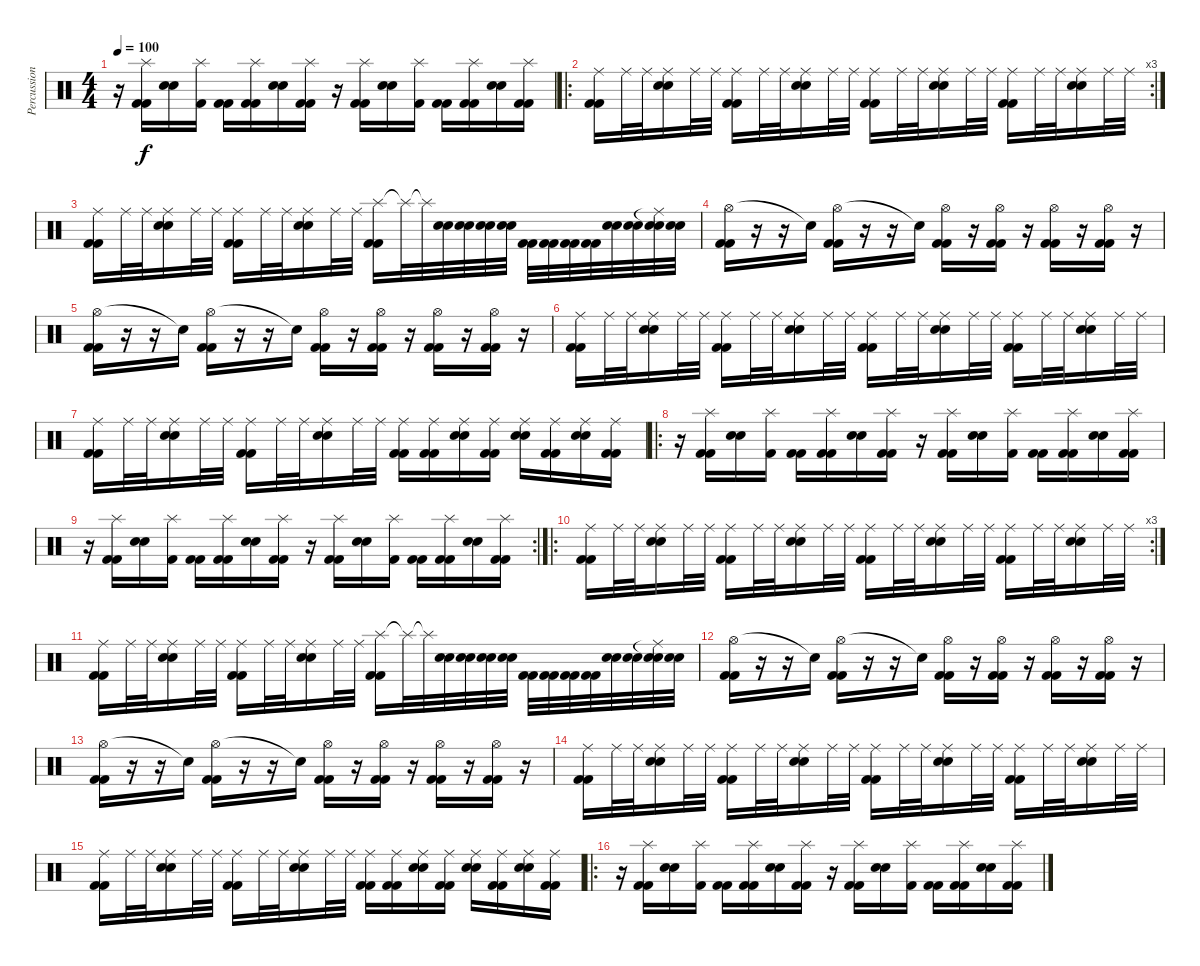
\track ("Percussion Dolmayan" "Percussion") {instrument percussion}
\staff {score}
\articulation defaults
\ts (4 4)
\tempo 100
\clef neutral
\ks c
r.16{dy f} ("Splash (hit)" "Kick (hit) 2" "Kick (hit) 2").16 ("Electric Snare (hit)" "Electric Snare (hit)").16 ("Splash (hit)" "Kick (hit) 2").16 ("Kick (hit) 2" "Kick (hit) 2").16 ("Splash (hit)" "Kick (hit) 2" "Kick (hit) 2").16 ("Electric Snare (hit)" "Electric Snare (hit)").16 ("Splash (hit)" "Kick (hit) 2" "Kick (hit) 2").16 r.16 ("Splash (hit)" "Kick (hit) 2" "Kick (hit) 2").16 ("Electric Snare (hit)" "Electric Snare (hit)").16 ("Splash (hit)" "Kick (hit) 2").16 ("Kick (hit) 2" "Kick (hit) 2").16 ("Splash (hit)" "Kick (hit) 2" "Kick (hit) 2").16 ("Electric Snare (hit)" "Electric Snare (hit)").16 ("Splash (hit)" "Kick (hit) 2" "Kick (hit) 2").16 |
\ro
\rc 3
("Ride (middle)" "Kick (hit) 2" "Kick (hit) 2").16 "Ride (middle)".32 "Ride (middle)".32 ("Ride (middle)" "Electric Snare (hit)" "Electric Snare (hit)").16 "Ride (middle)".32 "Ride (middle)".32 ("Ride (middle)" "Kick (hit) 2" "Kick (hit) 2").16 "Ride (middle)".32 "Ride (middle)".32 ("Ride (middle)" "Electric Snare (hit)" "Electric Snare (hit)").16 "Ride (middle)".32 "Ride (middle)".32 ("Ride (middle)" "Kick (hit) 2" "Kick (hit) 2").16 "Ride (middle)".32 "Ride (middle)".32 ("Ride (middle)" "Electric Snare (hit)" "Electric Snare (hit)").16 "Ride (middle)".32 "Ride (middle)".32 ("Ride (middle)" "Kick (hit) 2" "Kick (hit) 2").16 "Ride (middle)".32 "Ride (middle)".32 ("Ride (middle)" "Electric Snare (hit)" "Electric Snare (hit)").16 "Ride (middle)".32 "Ride (middle)".32 |
("Ride (middle)" "Kick (hit) 2" "Kick (hit) 2").16 "Ride (middle)".32 "Ride (middle)".32 ("Ride (middle)" "Electric Snare (hit)" "Electric Snare (hit)").16 "Ride (middle)".32 "Ride (middle)".32 ("Ride (middle)" "Kick (hit) 2" "Kick (hit) 2").16 "Ride (middle)".32 "Ride (middle)".32 ("Ride (middle)" "Electric Snare (hit)" "Electric Snare (hit)").16 "Ride (middle)".32 "Ride (middle)".32 ("Splash (hit)" "Kick (hit) 2" "Kick (hit) 2").16 "Splash (hit)"{t}.32 "Splash (hit)"{t}.32 ("Electric Snare (hit)" "Electric Snare (hit)").32 ("Electric Snare (hit)" "Electric Snare (hit)").32 ("Electric Snare (hit)" "Electric Snare (hit)").32 ("Electric Snare (hit)" "Electric Snare (hit)").32 ("Kick (hit) 2" "Kick (hit) 2").32 ("Kick (hit) 2" "Kick (hit) 2").32 ("Kick (hit) 2" "Kick (hit) 2").32 ("Kick (hit) 2" "Kick (hit) 2").32 ("Electric Snare (hit)" "Electric Snare (hit)").32 ("Electric Snare (hit)" "Electric Snare (hit)").32 ("Ride (middle)"{t} "Electric Snare (hit)" "Electric Snare (hit)").32 ("Electric Snare (hit)" "Electric Snare (hit)").32 |
("Hi-Hat (open)" "Kick (hit) 2" "Kick (hit) 2").16 r.16 r.16 "Snare (hit)"{t}.16 ("Hi-Hat (open)" "Kick (hit) 2" "Kick (hit) 2").16 r.16 r.16 "Snare (hit)"{t}.16 ("Hi-Hat (open)" "Kick (hit) 2" "Kick (hit) 2").16 r.16 ("Hi-Hat (open)" "Kick (hit) 2" "Kick (hit) 2").16 r.16 ("Hi-Hat (open)" "Kick (hit) 2" "Kick (hit) 2").16 r.16 ("Hi-Hat (open)" "Kick (hit) 2" "Kick (hit) 2").16 r.16 |
("Hi-Hat (open)" "Kick (hit) 2" "Kick (hit) 2").16 r.16 r.16 "Snare (hit)"{t}.16 ("Hi-Hat (open)" "Kick (hit) 2" "Kick (hit) 2").16 r.16 r.16 "Snare (hit)"{t}.16 ("Hi-Hat (open)" "Kick (hit) 2" "Kick (hit) 2").16 r.16 ("Hi-Hat (open)" "Kick (hit) 2" "Kick (hit) 2").16 r.16 ("Hi-Hat (open)" "Kick (hit) 2" "Kick (hit) 2").16 r.16 ("Hi-Hat (open)" "Kick (hit) 2" "Kick (hit) 2").16 r.16 |
("Ride (middle)" "Kick (hit) 2" "Kick (hit) 2").16 "Ride (middle)".32 "Ride (middle)".32 ("Ride (middle)" "Electric Snare (hit)" "Electric Snare (hit)").16 "Ride (middle)".32 "Ride (middle)".32 ("Ride (middle)" "Kick (hit) 2" "Kick (hit) 2").16 "Ride (middle)".32 "Ride (middle)".32 ("Ride (middle)" "Electric Snare (hit)" "Electric Snare (hit)").16 "Ride (middle)".32 "Ride (middle)".32 ("Ride (middle)" "Kick (hit) 2" "Kick (hit) 2").16 "Ride (middle)".32 "Ride (middle)".32 ("Ride (middle)" "Electric Snare (hit)" "Electric Snare (hit)").16 "Ride (middle)".32 "Ride (middle)".32 ("Ride (middle)" "Kick (hit) 2" "Kick (hit) 2").16 "Ride (middle)".32 "Ride (middle)".32 ("Ride (middle)" "Electric Snare (hit)" "Electric Snare (hit)").16 "Ride (middle)".32 "Ride (middle)".32 |
("Ride (middle)" "Kick (hit) 2" "Kick (hit) 2").16 "Ride (middle)".32 "Ride (middle)".32 ("Ride (middle)" "Electric Snare (hit)" "Electric Snare (hit)").16 "Ride (middle)".32 "Ride (middle)".32 ("Ride (middle)" "Kick (hit) 2" "Kick (hit) 2").16 "Ride (middle)".32 "Ride (middle)".32 ("Ride (middle)" "Electric Snare (hit)" "Electric Snare (hit)").16 "Ride (middle)".32 "Ride (middle)".32 ("Ride (middle)" "Kick (hit) 2" "Kick (hit) 2").16 ("Ride (middle)" "Kick (hit) 2" "Kick (hit) 2").16 ("Ride (middle)" "Electric Snare (hit)" "Electric Snare (hit)").16 ("Ride (middle)" "Kick (hit) 2" "Kick (hit) 2").16 ("Ride (middle)" "Electric Snare (hit)" "Electric Snare (hit)").16 ("Ride (middle)" "Kick (hit) 2" "Kick (hit) 2").16 ("Ride (middle)" "Electric Snare (hit)" "Electric Snare (hit)").16 ("Ride (middle)" "Kick (hit) 2" "Kick (hit) 2").16 |
\ro
r.16 ("Splash (hit)" "Kick (hit) 2" "Kick (hit) 2").16 ("Electric Snare (hit)" "Electric Snare (hit)").16 ("Splash (hit)" "Kick (hit) 2").16 ("Kick (hit) 2" "Kick (hit) 2").16 ("Splash (hit)" "Kick (hit) 2" "Kick (hit) 2").16 ("Electric Snare (hit)" "Electric Snare (hit)").16 ("Splash (hit)" "Kick (hit) 2" "Kick (hit) 2").16 r.16 ("Splash (hit)" "Kick (hit) 2" "Kick (hit) 2").16 ("Electric Snare (hit)" "Electric Snare (hit)").16 ("Splash (hit)" "Kick (hit) 2").16 ("Kick (hit) 2" "Kick (hit) 2").16 ("Splash (hit)" "Kick (hit) 2" "Kick (hit) 2").16 ("Electric Snare (hit)" "Electric Snare (hit)").16 ("Splash (hit)" "Kick (hit) 2" "Kick (hit) 2").16 |
\rc 2
r.16 ("Splash (hit)" "Kick (hit) 2" "Kick (hit) 2").16 ("Electric Snare (hit)" "Electric Snare (hit)").16 ("Splash (hit)" "Kick (hit) 2").16 ("Kick (hit) 2" "Kick (hit) 2").16 ("Splash (hit)" "Kick (hit) 2" "Kick (hit) 2").16 ("Electric Snare (hit)" "Electric Snare (hit)").16 ("Splash (hit)" "Kick (hit) 2" "Kick (hit) 2").16 r.16 ("Splash (hit)" "Kick (hit) 2" "Kick (hit) 2").16 ("Electric Snare (hit)" "Electric Snare (hit)").16 ("Splash (hit)" "Kick (hit) 2").16 ("Kick (hit) 2" "Kick (hit) 2").16 ("Splash (hit)" "Kick (hit) 2" "Kick (hit) 2").16 ("Electric Snare (hit)" "Electric Snare (hit)").16 ("Splash (hit)" "Kick (hit) 2" "Kick (hit) 2").16 |
\ro
\rc 3
("Ride (middle)" "Kick (hit) 2" "Kick (hit) 2").16 "Ride (middle)".32 "Ride (middle)".32 ("Ride (middle)" "Electric Snare (hit)" "Electric Snare (hit)").16 "Ride (middle)".32 "Ride (middle)".32 ("Ride (middle)" "Kick (hit) 2" "Kick (hit) 2").16 "Ride (middle)".32 "Ride (middle)".32 ("Ride (middle)" "Electric Snare (hit)" "Electric Snare (hit)").16 "Ride (middle)".32 "Ride (middle)".32 ("Ride (middle)" "Kick (hit) 2" "Kick (hit) 2").16 "Ride (middle)".32 "Ride (middle)".32 ("Ride (middle)" "Electric Snare (hit)" "Electric Snare (hit)").16 "Ride (middle)".32 "Ride (middle)".32 ("Ride (middle)" "Kick (hit) 2" "Kick (hit) 2").16 "Ride (middle)".32 "Ride (middle)".32 ("Ride (middle)" "Electric Snare (hit)" "Electric Snare (hit)").16 "Ride (middle)".32 "Ride (middle)".32 |
("Ride (middle)" "Kick (hit) 2" "Kick (hit) 2").16 "Ride (middle)".32 "Ride (middle)".32 ("Ride (middle)" "Electric Snare (hit)" "Electric Snare (hit)").16 "Ride (middle)".32 "Ride (middle)".32 ("Ride (middle)" "Kick (hit) 2" "Kick (hit) 2").16 "Ride (middle)".32 "Ride (middle)".32 ("Ride (middle)" "Electric Snare (hit)" "Electric Snare (hit)").16 "Ride (middle)".32 "Ride (middle)".32 ("Splash (hit)" "Kick (hit) 2" "Kick (hit) 2").16 "Splash (hit)"{t}.32 "Splash (hit)"{t}.32 ("Electric Snare (hit)" "Electric Snare (hit)").32 ("Electric Snare (hit)" "Electric Snare (hit)").32 ("Electric Snare (hit)" "Electric Snare (hit)").32 ("Electric Snare (hit)" "Electric Snare (hit)").32 ("Kick (hit) 2" "Kick (hit) 2").32 ("Kick (hit) 2" "Kick (hit) 2").32 ("Kick (hit) 2" "Kick (hit) 2").32 ("Kick (hit) 2" "Kick (hit) 2").32 ("Electric Snare (hit)" "Electric Snare (hit)").32 ("Electric Snare (hit)" "Electric Snare (hit)").32 ("Ride (middle)"{t} "Electric Snare (hit)" "Electric Snare (hit)").32 ("Electric Snare (hit)" "Electric Snare (hit)").32 |
("Hi-Hat (open)" "Kick (hit) 2" "Kick (hit) 2").16 r.16 r.16 "Snare (hit)"{t}.16 ("Hi-Hat (open)" "Kick (hit) 2" "Kick (hit) 2").16 r.16 r.16 "Snare (hit)"{t}.16 ("Hi-Hat (open)" "Kick (hit) 2" "Kick (hit) 2").16 r.16 ("Hi-Hat (open)" "Kick (hit) 2" "Kick (hit) 2").16 r.16 ("Hi-Hat (open)" "Kick (hit) 2" "Kick (hit) 2").16 r.16 ("Hi-Hat (open)" "Kick (hit) 2" "Kick (hit) 2").16 r.16 |
("Hi-Hat (open)" "Kick (hit) 2" "Kick (hit) 2").16 r.16 r.16 "Snare (hit)"{t}.16 ("Hi-Hat (open)" "Kick (hit) 2" "Kick (hit) 2").16 r.16 r.16 "Snare (hit)"{t}.16 ("Hi-Hat (open)" "Kick (hit) 2" "Kick (hit) 2").16 r.16 ("Hi-Hat (open)" "Kick (hit) 2" "Kick (hit) 2").16 r.16 ("Hi-Hat (open)" "Kick (hit) 2" "Kick (hit) 2").16 r.16 ("Hi-Hat (open)" "Kick (hit) 2" "Kick (hit) 2").16 r.16 |
("Ride (middle)" "Kick (hit) 2" "Kick (hit) 2").16 "Ride (middle)".32 "Ride (middle)".32 ("Ride (middle)" "Electric Snare (hit)" "Electric Snare (hit)").16 "Ride (middle)".32 "Ride (middle)".32 ("Ride (middle)" "Kick (hit) 2" "Kick (hit) 2").16 "Ride (middle)".32 "Ride (middle)".32 ("Ride (middle)" "Electric Snare (hit)" "Electric Snare (hit)").16 "Ride (middle)".32 "Ride (middle)".32 ("Ride (middle)" "Kick (hit) 2" "Kick (hit) 2").16 "Ride (middle)".32 "Ride (middle)".32 ("Ride (middle)" "Electric Snare (hit)" "Electric Snare (hit)").16 "Ride (middle)".32 "Ride (middle)".32 ("Ride (middle)" "Kick (hit) 2" "Kick (hit) 2").16 "Ride (middle)".32 "Ride (middle)".32 ("Ride (middle)" "Electric Snare (hit)" "Electric Snare (hit)").16 "Ride (middle)".32 "Ride (middle)".32 |
("Ride (middle)" "Kick (hit) 2" "Kick (hit) 2").16 "Ride (middle)".32 "Ride (middle)".32 ("Ride (middle)" "Electric Snare (hit)" "Electric Snare (hit)").16 "Ride (middle)".32 "Ride (middle)".32 ("Ride (middle)" "Kick (hit) 2" "Kick (hit) 2").16 "Ride (middle)".32 "Ride (middle)".32 ("Ride (middle)" "Electric Snare (hit)" "Electric Snare (hit)").16 "Ride (middle)".32 "Ride (middle)".32 ("Ride (middle)" "Kick (hit) 2" "Kick (hit) 2").16 ("Ride (middle)" "Kick (hit) 2" "Kick (hit) 2").16 ("Ride (middle)" "Electric Snare (hit)" "Electric Snare (hit)").16 ("Ride (middle)" "Kick (hit) 2" "Kick (hit) 2").16 ("Ride (middle)" "Electric Snare (hit)" "Electric Snare (hit)").16 ("Ride (middle)" "Kick (hit) 2" "Kick (hit) 2").16 ("Ride (middle)" "Electric Snare (hit)" "Electric Snare (hit)").16 ("Ride (middle)" "Kick (hit) 2" "Kick (hit) 2").16 |
\ro
r.16 ("Splash (hit)" "Kick (hit) 2" "Kick (hit) 2").16 ("Electric Snare (hit)" "Electric Snare (hit)").16 ("Splash (hit)" "Kick (hit) 2").16 ("Kick (hit) 2" "Kick (hit) 2").16 ("Splash (hit)" "Kick (hit) 2" "Kick (hit) 2").16 ("Electric Snare (hit)" "Electric Snare (hit)").16 ("Splash (hit)" "Kick (hit) 2" "Kick (hit) 2").16 r.16 ("Splash (hit)" "Kick (hit) 2" "Kick (hit) 2").16 ("Electric Snare (hit)" "Electric Snare (hit)").16 ("Splash (hit)" "Kick (hit) 2").16 ("Kick (hit) 2" "Kick (hit) 2").16 ("Splash (hit)" "Kick (hit) 2" "Kick (hit) 2").16 ("Electric Snare (hit)" "Electric Snare (hit)").16 ("Splash (hit)" "Kick (hit) 2" "Kick (hit) 2").16
